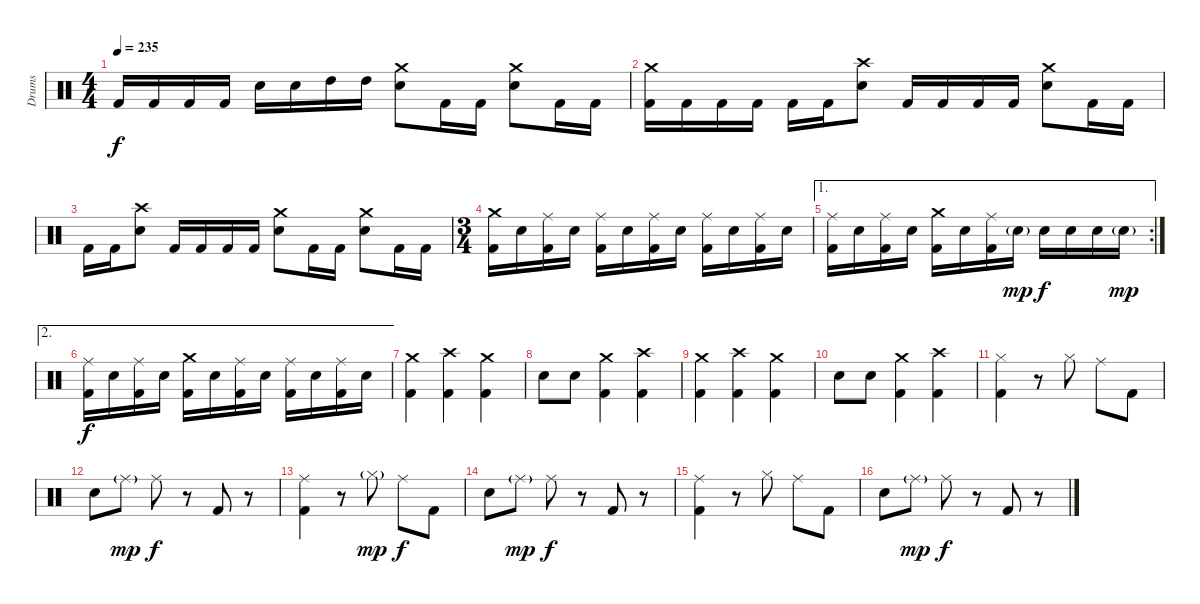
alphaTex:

\track ("Drums" "Drums") {instrument percussion}
\staff {score}
\articulation defaults
\ts (4 4)
\tempo 235
\clef neutral
\ks c "Kick (hit) 2".16{dy f} "Kick (hit) 2".16 "Kick (hit) 2".16 "Kick (hit) 2".16 "Electric Snare (hit)".16 "Electric Snare (hit)".16 "High Tom (hit)".16 "High Tom (hit)".16
("Crash medium (hit)" "Electric Snare (hit)").8 "Kick (hit) 2".16 "Kick (hit) 2".16 ("Crash medium (hit)" "Electric Snare (hit)").8 "Kick (hit) 2".16 "Kick (hit) 2".16 |
("Crash medium (hit)" "Kick (hit) 2").16 "Kick (hit) 2".16 "Kick (hit) 2".16 "Kick (hit) 2".16 "Kick (hit) 2".16 "Kick (hit) 2".16 ("Crash high (hit)" "Electric Snare (hit)").8 "Kick (hit) 2".16 "Kick (hit) 2".16 "Kick (hit) 2".16 "Kick (hit) 2".16 ("Crash medium (hit)" "Electric Snare (hit)").8 "Kick (hit) 2".16 "Kick (hit) 2".16 |
"Kick (hit) 2".16 "Kick (hit) 2".16 ("Crash high (hit)" "Electric Snare (hit)").8 "Kick (hit) 2".16 "Kick (hit) 2".16 "Kick (hit) 2".16 "Kick (hit) 2".16 ("Crash medium (hit)" "Electric Snare (hit)").8 "Kick (hit) 2".16 "Kick (hit) 2".16 ("Crash medium (hit)" "Electric Snare (hit)").8 "Kick (hit) 2".16 "Kick (hit) 2".16 |
\ts (3 4)
("Crash medium (hit)" "Kick (hit) 2").16 "Electric Snare (hit)".16 ("Ride (middle)" "Kick (hit) 2").16 "Electric Snare (hit)".16 ("Ride (middle)" "Kick (hit) 2").16 "Electric Snare (hit)".16 ("Ride (middle)" "Kick (hit) 2").16 "Electric Snare (hit)".16 ("Ride (middle)" "Kick (hit) 2").16 "Electric Snare (hit)".16 ("Ride (middle)" "Kick (hit) 2").16 "Electric Snare (hit)".16 |
\ae 1
\rc 2
("Ride (middle)" "Kick (hit) 2").16 "Electric Snare (hit)".16 ("Ride (middle)" "Kick (hit) 2").16 "Electric Snare (hit)".16 ("Crash medium (hit)" "Kick (hit) 2").16 "Electric Snare (hit)".16 ("Ride (middle)" "Kick (hit) 2").16 "Electric Snare (hit)"{g}.16{dy mp} "Electric Snare (hit)".16{dy f} "Electric Snare (hit)".16 "Electric Snare (hit)".16 "Electric Snare (hit)"{g}.16{dy mp} |
\ae 2
("Ride (middle)" "Kick (hit) 2").16{dy f} "Electric Snare (hit)".16 ("Ride (middle)" "Kick (hit) 2").16 "Electric Snare (hit)".16 ("Crash medium (hit)" "Kick (hit) 2").16 "Electric Snare (hit)".16 ("Ride (middle)" "Kick (hit) 2").16 "Electric Snare (hit)".16 ("Ride (middle)" "Kick (hit) 2").16 "Electric Snare (hit)".16 ("Ride (middle)" "Kick (hit) 2").16 "Electric Snare (hit)".16 |
("Crash medium (hit)" "Kick (hit) 2").4 ("Crash high (hit)" "Kick (hit) 2").4 ("Crash medium (hit)" "Kick (hit) 2").4 |
"Electric Snare (hit)".8 "Electric Snare (hit)".8 ("Crash medium (hit)" "Kick (hit) 2").4 ("Crash high (hit)" "Kick (hit) 2").4 |
("Crash medium (hit)" "Kick (hit) 2").4 ("Crash high (hit)" "Kick (hit) 2").4 ("Crash medium (hit)" "Kick (hit) 2").4 |
"Electric Snare (hit)".8 "Electric Snare (hit)".8 ("Crash medium (hit)" "Kick (hit) 2").4 ("Crash high (hit)" "Kick (hit) 2").4 |
("Hi-Hat (closed)" "Kick (hit) 2").4 r.8 "Hi-Hat (closed)".8 "Ride (middle)".8 "Kick (hit) 2".8 |
"Electric Snare (hit)".8 "Ride (middle)"{g}.8{dy mp} "Ride (middle)".8{dy f} r.8 "Kick (hit) 2".8 r.8 |
("Ride (middle)" "Kick (hit) 2").4 r.8 "Hi-Hat (closed)"{g}.8{dy mp} "Ride (middle)".8{dy f} "Kick (hit) 2".8 |
"Electric Snare (hit)".8 "Ride (middle)"{g}.8{dy mp} "Ride (middle)".8{dy f} r.8 "Kick (hit) 2".8 r.8 |
("Ride (middle)" "Kick (hit) 2").4 r.8 "Hi-Hat (closed)".8 "Ride (middle)".8 "Kick (hit) 2".8 |
"Electric Snare (hit)".8 "Ride (middle)"{g}.8{dy mp} "Ride (middle)".8{dy f} r.8 "Kick (hit) 2".8 r.8
